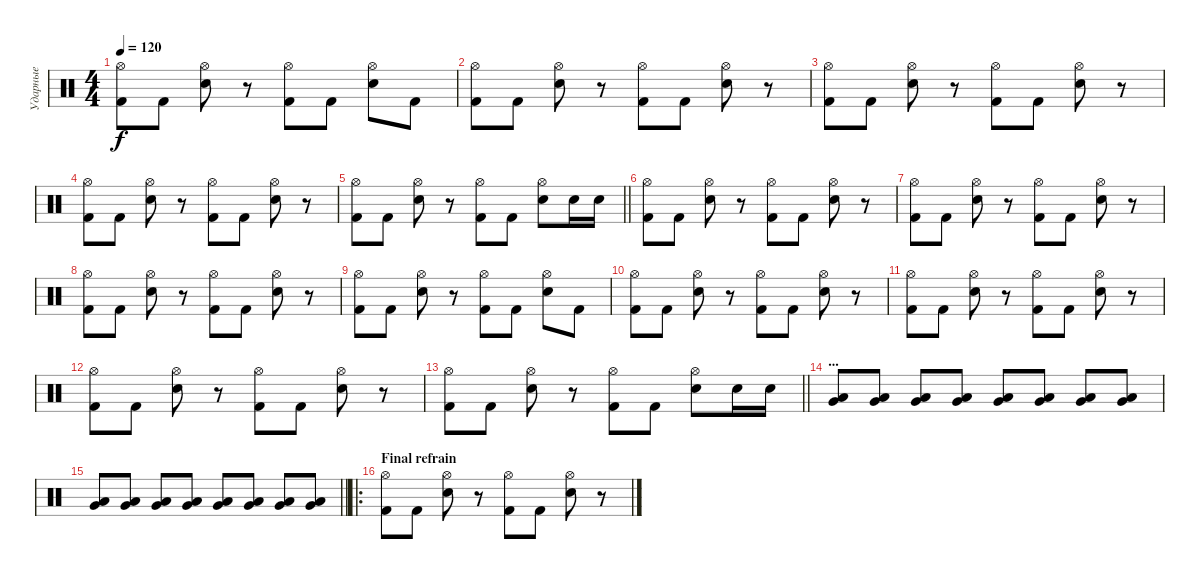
\track ("Ударные" "Ударные") {instrument percussion}
\staff {score}
\articulation defaults
\ts (4 4)
\tempo 120
\clef neutral
\ks c
("Hi-Hat (open)" "Kick (hit) 2").8{dy f} "Kick (hit) 2".8 ("Hi-Hat (open)" "Electric Snare (hit)").8 r.8 ("Hi-Hat (open)" "Kick (hit) 2").8 "Kick (hit) 2".8 ("Hi-Hat (open)" "Electric Snare (hit)").8 "Kick (hit) 2".8 |
("Hi-Hat (open)" "Kick (hit) 2").8 "Kick (hit) 2".8 ("Hi-Hat (open)" "Electric Snare (hit)").8 r.8 ("Hi-Hat (open)" "Kick (hit) 2").8 "Kick (hit) 2".8 ("Hi-Hat (open)" "Electric Snare (hit)").8 r.8 |
("Hi-Hat (open)" "Kick (hit) 2").8 "Kick (hit) 2".8 ("Hi-Hat (open)" "Electric Snare (hit)").8 r.8 ("Hi-Hat (open)" "Kick (hit) 2").8 "Kick (hit) 2".8 ("Hi-Hat (open)" "Electric Snare (hit)").8 r.8 |
("Hi-Hat (open)" "Kick (hit) 2").8 "Kick (hit) 2".8 ("Hi-Hat (open)" "Electric Snare (hit)").8 r.8 ("Hi-Hat (open)" "Kick (hit) 2").8 "Kick (hit) 2".8 ("Hi-Hat (open)" "Electric Snare (hit)").8 r.8 |
\barLineRight lightlight
("Hi-Hat (open)" "Kick (hit) 2").8 "Kick (hit) 2".8 ("Hi-Hat (open)" "Electric Snare (hit)").8 r.8 ("Hi-Hat (open)" "Kick (hit) 2").8 "Kick (hit) 2".8 ("Hi-Hat (open)" "Electric Snare (hit)").8 "Electric Snare (hit)".16 "Electric Snare (hit)".16 |
("Hi-Hat (open)" "Kick (hit) 2").8 "Kick (hit) 2".8 ("Hi-Hat (open)" "Electric Snare (hit)").8 r.8 ("Hi-Hat (open)" "Kick (hit) 2").8 "Kick (hit) 2".8 ("Hi-Hat (open)" "Electric Snare (hit)").8 r.8 |
("Hi-Hat (open)" "Kick (hit) 2").8 "Kick (hit) 2".8 ("Hi-Hat (open)" "Electric Snare (hit)").8 r.8 ("Hi-Hat (open)" "Kick (hit) 2").8 "Kick (hit) 2".8 ("Hi-Hat (open)" "Electric Snare (hit)").8 r.8 |
("Hi-Hat (open)" "Kick (hit) 2").8 "Kick (hit) 2".8 ("Hi-Hat (open)" "Electric Snare (hit)").8 r.8 ("Hi-Hat (open)" "Kick (hit) 2").8 "Kick (hit) 2".8 ("Hi-Hat (open)" "Electric Snare (hit)").8 r.8 |
("Hi-Hat (open)" "Kick (hit) 2").8 "Kick (hit) 2".8 ("Hi-Hat (open)" "Electric Snare (hit)").8 r.8 ("Hi-Hat (open)" "Kick (hit) 2").8 "Kick (hit) 2".8 ("Hi-Hat (open)" "Electric Snare (hit)").8 "Kick (hit) 2".8 |
("Hi-Hat (open)" "Kick (hit) 2").8 "Kick (hit) 2".8 ("Hi-Hat (open)" "Electric Snare (hit)").8 r.8 ("Hi-Hat (open)" "Kick (hit) 2").8 "Kick (hit) 2".8 ("Hi-Hat (open)" "Electric Snare (hit)").8 r.8 |
("Hi-Hat (open)" "Kick (hit) 2").8 "Kick (hit) 2".8 ("Hi-Hat (open)" "Electric Snare (hit)").8 r.8 ("Hi-Hat (open)" "Kick (hit) 2").8 "Kick (hit) 2".8 ("Hi-Hat (open)" "Electric Snare (hit)").8 r.8 |
("Hi-Hat (open)" "Kick (hit) 2").8 "Kick (hit) 2".8 ("Hi-Hat (open)" "Electric Snare (hit)").8 r.8 ("Hi-Hat (open)" "Kick (hit) 2").8 "Kick (hit) 2".8 ("Hi-Hat (open)" "Electric Snare (hit)").8 r.8 |
\barLineRight lightlight
("Hi-Hat (open)" "Kick (hit) 2").8 "Kick (hit) 2".8 ("Hi-Hat (open)" "Electric Snare (hit)").8 r.8 ("Hi-Hat (open)" "Kick (hit) 2").8 "Kick (hit) 2".8 ("Hi-Hat (open)" "Electric Snare (hit)").8 "Electric Snare (hit)".16 "Electric Snare (hit)".16 |
\section ("" "...")
("Low Tom (hit)" "Very Low Tom (hit)").8 ("Low Tom (hit)" "Very Low Tom (hit)").8 ("Low Tom (hit)" "Very Low Tom (hit)").8 ("Low Tom (hit)" "Very Low Tom (hit)").8 ("Low Tom (hit)" "Very Low Tom (hit)").8 ("Low Tom (hit)" "Very Low Tom (hit)").8 ("Low Tom (hit)" "Very Low Tom (hit)").8 ("Low Tom (hit)" "Very Low Tom (hit)").8 |
\barLineRight lightlight
("Low Tom (hit)" "Very Low Tom (hit)").8 ("Low Tom (hit)" "Very Low Tom (hit)").8 ("Low Tom (hit)" "Very Low Tom (hit)").8 ("Low Tom (hit)" "Very Low Tom (hit)").8 ("Low Tom (hit)" "Very Low Tom (hit)").8 ("Low Tom (hit)" "Very Low Tom (hit)").8 ("Low Tom (hit)" "Very Low Tom (hit)").8 ("Low Tom (hit)" "Very Low Tom (hit)").8 |
\ro
\section ("" "Final refrain")
("Hi-Hat (open)" "Kick (hit) 2").8 "Kick (hit) 2".8 ("Hi-Hat (open)" "Electric Snare (hit)").8 r.8 ("Hi-Hat (open)" "Kick (hit) 2").8 "Kick (hit) 2".8 ("Hi-Hat (open)" "Electric Snare (hit)").8 r.8
